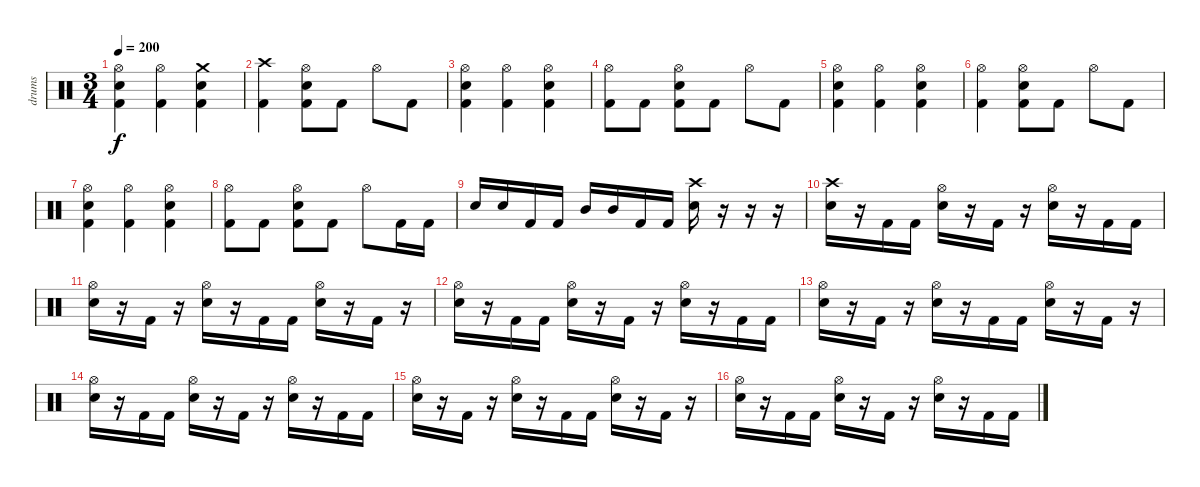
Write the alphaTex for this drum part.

\track ("drums" "drums") {instrument percussion}
\staff {score}
\articulation defaults
\ts (3 4)
\tempo 200
\clef neutral
\ks c
("Hi-Hat (open)" "Electric Snare (hit)" "Kick (hit) 2").4{dy f} ("Hi-Hat (open)" "Kick (hit) 2").4 ("Crash medium (hit)" "Electric Snare (hit)" "Kick (hit) 2").4 |
("Crash high (hit)" "Kick (hit) 2").4 ("Hi-Hat (open)" "Electric Snare (hit)" "Kick (hit) 2").8 "Kick (hit) 2".8 "Hi-Hat (open)".8 "Kick (hit) 2".8 |
("Hi-Hat (open)" "Electric Snare (hit)" "Kick (hit) 2").4 ("Hi-Hat (open)" "Kick (hit) 2").4 ("Hi-Hat (open)" "Electric Snare (hit)" "Kick (hit) 2").4 |
("Hi-Hat (open)" "Kick (hit) 2").8 "Kick (hit) 2".8 ("Hi-Hat (open)" "Electric Snare (hit)" "Kick (hit) 2").8 "Kick (hit) 2".8 "Hi-Hat (open)".8 "Kick (hit) 2".8 |
("Hi-Hat (open)" "Electric Snare (hit)" "Kick (hit) 2").4 ("Hi-Hat (open)" "Kick (hit) 2").4 ("Hi-Hat (open)" "Electric Snare (hit)" "Kick (hit) 2").4 |
("Hi-Hat (open)" "Kick (hit) 2").4 ("Hi-Hat (open)" "Electric Snare (hit)" "Kick (hit) 2").8 "Kick (hit) 2".8 "Hi-Hat (open)".8 "Kick (hit) 2".8 |
("Hi-Hat (open)" "Electric Snare (hit)" "Kick (hit) 2").4 ("Hi-Hat (open)" "Kick (hit) 2").4 ("Hi-Hat (open)" "Electric Snare (hit)" "Kick (hit) 2").4 |
("Hi-Hat (open)" "Kick (hit) 2").8 "Kick (hit) 2".8 ("Hi-Hat (open)" "Electric Snare (hit)" "Kick (hit) 2").8 "Kick (hit) 2".8 "Hi-Hat (open)".8 "Kick (hit) 2".16 "Kick (hit) 2".16 |
"Electric Snare (hit)".16 "Electric Snare (hit)".16 "Kick (hit) 2".16 "Kick (hit) 2".16 "Mid Tom (hit)".16 "Mid Tom (hit)".16 "Kick (hit) 2".16 "Kick (hit) 2".16 ("Electric Snare (hit)" "Crash high (hit)").16 r.16 r.16 r.16 |
("Electric Snare (hit)" "Crash high (hit)").16 r.16 "Kick (hit) 2".16 "Kick (hit) 2".16 ("Electric Snare (hit)" "Hi-Hat (open)").16 r.16 "Kick (hit) 2".16 r.16 ("Electric Snare (hit)" "Hi-Hat (open)").16 r.16 "Kick (hit) 2".16 "Kick (hit) 2".16 |
("Electric Snare (hit)" "Hi-Hat (open)").16 r.16 "Kick (hit) 2".16 r.16 ("Electric Snare (hit)" "Hi-Hat (open)").16 r.16 "Kick (hit) 2".16 "Kick (hit) 2".16 ("Electric Snare (hit)" "Hi-Hat (open)").16 r.16 "Kick (hit) 2".16 r.16 |
("Electric Snare (hit)" "Hi-Hat (open)").16 r.16 "Kick (hit) 2".16 "Kick (hit) 2".16 ("Electric Snare (hit)" "Hi-Hat (open)").16 r.16 "Kick (hit) 2".16 r.16 ("Electric Snare (hit)" "Hi-Hat (open)").16 r.16 "Kick (hit) 2".16 "Kick (hit) 2".16 |
("Electric Snare (hit)" "Hi-Hat (open)").16 r.16 "Kick (hit) 2".16 r.16 ("Electric Snare (hit)" "Hi-Hat (open)").16 r.16 "Kick (hit) 2".16 "Kick (hit) 2".16 ("Electric Snare (hit)" "Hi-Hat (open)").16 r.16 "Kick (hit) 2".16 r.16 |
("Electric Snare (hit)" "Hi-Hat (open)").16 r.16 "Kick (hit) 2".16 "Kick (hit) 2".16 ("Electric Snare (hit)" "Hi-Hat (open)").16 r.16 "Kick (hit) 2".16 r.16 ("Electric Snare (hit)" "Hi-Hat (open)").16 r.16 "Kick (hit) 2".16 "Kick (hit) 2".16 |
("Electric Snare (hit)" "Hi-Hat (open)").16 r.16 "Kick (hit) 2".16 r.16 ("Electric Snare (hit)" "Hi-Hat (open)").16 r.16 "Kick (hit) 2".16 "Kick (hit) 2".16 ("Electric Snare (hit)" "Hi-Hat (open)").16 r.16 "Kick (hit) 2".16 r.16 |
("Electric Snare (hit)" "Hi-Hat (open)").16 r.16 "Kick (hit) 2".16 "Kick (hit) 2".16 ("Electric Snare (hit)" "Hi-Hat (open)").16 r.16 "Kick (hit) 2".16 r.16 ("Electric Snare (hit)" "Hi-Hat (open)").16 r.16 "Kick (hit) 2".16 "Kick (hit) 2".16
